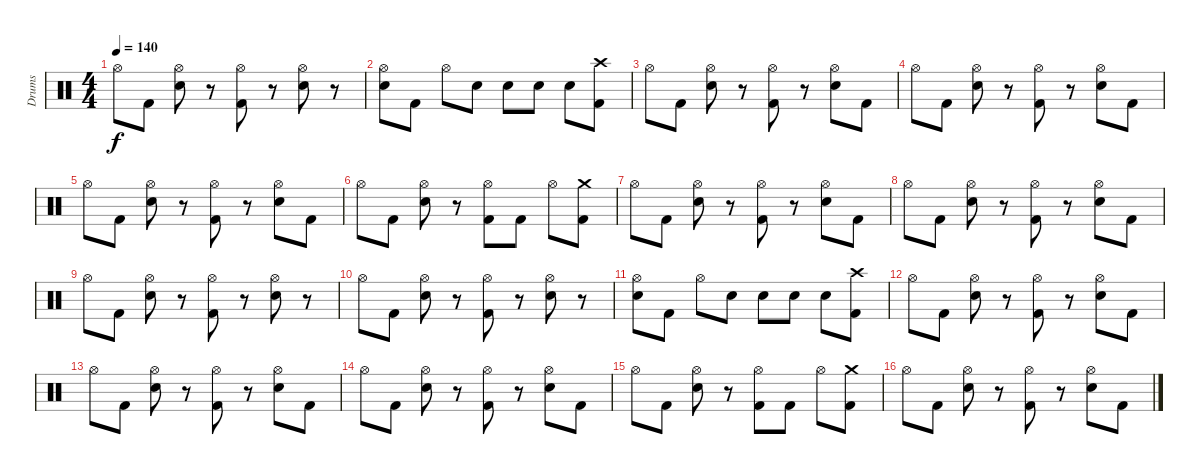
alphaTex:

\track ("Drums" "Drums") {instrument percussion}
\staff {score}
\articulation defaults
\ts (4 4)
\tempo 140
\clef neutral
\ks c "Hi-Hat (open)".8{dy f} "Kick (hit) 2".8
("Hi-Hat (open)" "Electric Snare (hit)").8 r.8 ("Hi-Hat (open)" "Kick (hit) 2").8 r.8 ("Hi-Hat (open)" "Electric Snare (hit)").8 r.8 |
("Hi-Hat (open)" "Electric Snare (hit)").8 "Kick (hit) 2".8 "Hi-Hat (open)".8 "Electric Snare (hit)".8 "Electric Snare (hit)".8 "Electric Snare (hit)".8 "Electric Snare (hit)".8 ("Crash high (hit)" "Kick (hit) 2").8 |
"Hi-Hat (open)".8 "Kick (hit) 2".8 ("Hi-Hat (open)" "Electric Snare (hit)").8 r.8 ("Hi-Hat (open)" "Kick (hit) 2").8 r.8 ("Hi-Hat (open)" "Electric Snare (hit)").8 "Kick (hit) 2".8 |
"Hi-Hat (open)".8 "Kick (hit) 2".8 ("Hi-Hat (open)" "Electric Snare (hit)").8 r.8 ("Hi-Hat (open)" "Kick (hit) 2").8 r.8 ("Hi-Hat (open)" "Electric Snare (hit)").8 "Kick (hit) 2".8 |
"Hi-Hat (open)".8 "Kick (hit) 2".8 ("Hi-Hat (open)" "Electric Snare (hit)").8 r.8 ("Hi-Hat (open)" "Kick (hit) 2").8 r.8 ("Hi-Hat (open)" "Electric Snare (hit)").8 "Kick (hit) 2".8 |
"Hi-Hat (open)".8 "Kick (hit) 2".8 ("Hi-Hat (open)" "Electric Snare (hit)").8 r.8 ("Hi-Hat (open)" "Kick (hit) 2").8 "Kick (hit) 2".8 "Hi-Hat (open)".8 ("Crash medium (hit)" "Kick (hit) 2").8 |
"Hi-Hat (open)".8 "Kick (hit) 2".8 ("Hi-Hat (open)" "Electric Snare (hit)").8 r.8 ("Hi-Hat (open)" "Kick (hit) 2").8 r.8 ("Hi-Hat (open)" "Electric Snare (hit)").8 "Kick (hit) 2".8 |
"Hi-Hat (open)".8 "Kick (hit) 2".8 ("Hi-Hat (open)" "Electric Snare (hit)").8 r.8 ("Hi-Hat (open)" "Kick (hit) 2").8 r.8 ("Hi-Hat (open)" "Electric Snare (hit)").8 "Kick (hit) 2".8 |
"Hi-Hat (open)".8 "Kick (hit) 2".8 ("Hi-Hat (open)" "Electric Snare (hit)").8 r.8 ("Hi-Hat (open)" "Kick (hit) 2").8 r.8 ("Hi-Hat (open)" "Electric Snare (hit)").8 r.8 |
"Hi-Hat (open)".8 "Kick (hit) 2".8 ("Hi-Hat (open)" "Electric Snare (hit)").8 r.8 ("Hi-Hat (open)" "Kick (hit) 2").8 r.8 ("Hi-Hat (open)" "Electric Snare (hit)").8 r.8 |
("Hi-Hat (open)" "Electric Snare (hit)").8 "Kick (hit) 2".8 "Hi-Hat (open)".8 "Electric Snare (hit)".8 "Electric Snare (hit)".8 "Electric Snare (hit)".8 "Electric Snare (hit)".8 ("Crash high (hit)" "Kick (hit) 2").8 |
"Hi-Hat (open)".8 "Kick (hit) 2".8 ("Hi-Hat (open)" "Electric Snare (hit)").8 r.8 ("Hi-Hat (open)" "Kick (hit) 2").8 r.8 ("Hi-Hat (open)" "Electric Snare (hit)").8 "Kick (hit) 2".8 |
"Hi-Hat (open)".8 "Kick (hit) 2".8 ("Hi-Hat (open)" "Electric Snare (hit)").8 r.8 ("Hi-Hat (open)" "Kick (hit) 2").8 r.8 ("Hi-Hat (open)" "Electric Snare (hit)").8 "Kick (hit) 2".8 |
"Hi-Hat (open)".8 "Kick (hit) 2".8 ("Hi-Hat (open)" "Electric Snare (hit)").8 r.8 ("Hi-Hat (open)" "Kick (hit) 2").8 r.8 ("Hi-Hat (open)" "Electric Snare (hit)").8 "Kick (hit) 2".8 |
"Hi-Hat (open)".8 "Kick (hit) 2".8 ("Hi-Hat (open)" "Electric Snare (hit)").8 r.8 ("Hi-Hat (open)" "Kick (hit) 2").8 "Kick (hit) 2".8 "Hi-Hat (open)".8 ("Crash medium (hit)" "Kick (hit) 2").8 |
"Hi-Hat (open)".8 "Kick (hit) 2".8 ("Hi-Hat (open)" "Electric Snare (hit)").8 r.8 ("Hi-Hat (open)" "Kick (hit) 2").8 r.8 ("Hi-Hat (open)" "Electric Snare (hit)").8 "Kick (hit) 2".8
